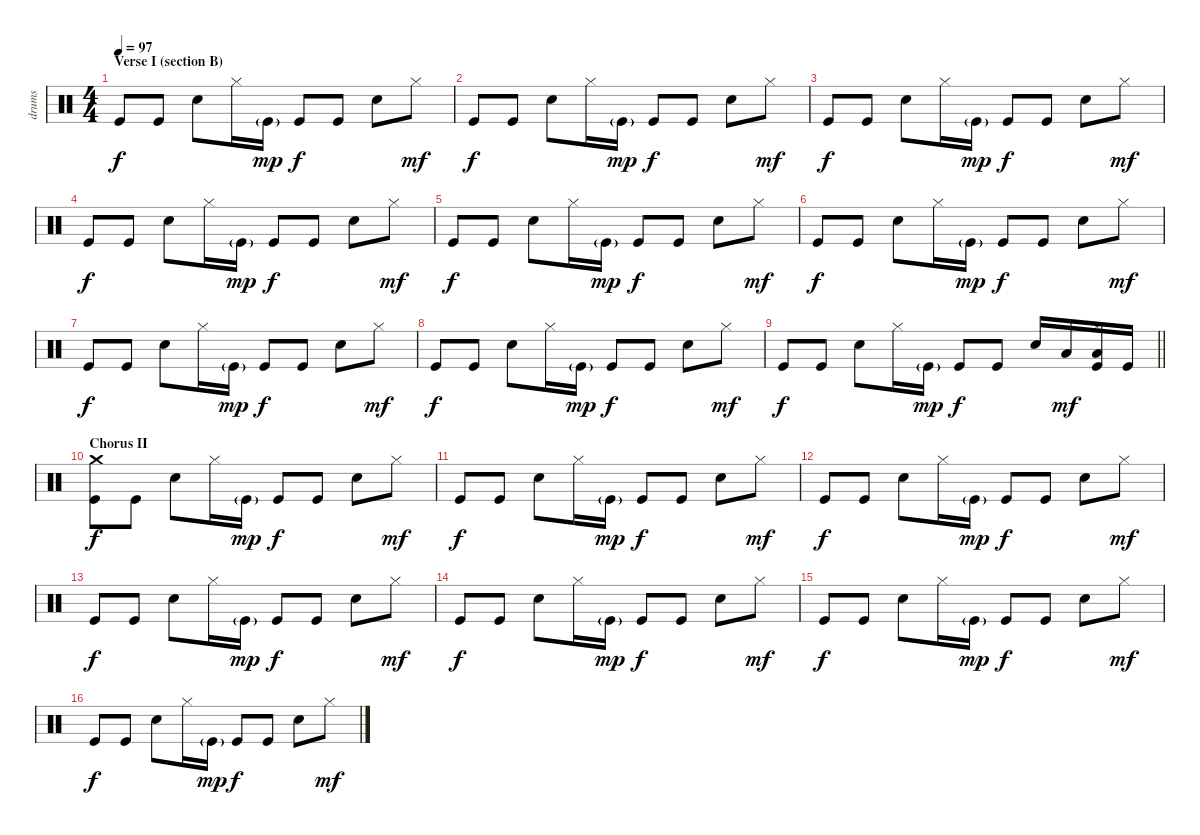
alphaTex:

\track ("drums" "drums") {instrument percussion}
\staff {score}
\articulation defaults
\ts (4 4)
\section ("" "Verse I (section B)")
\tempo 97
\clef neutral
\ks c "Kick (hit)".8{dy f} "Kick (hit)".8 "Electric Snare (hit)".8 "Hi-Hat (closed)".16 "Kick (hit)"{g}.16{dy mp} "Kick (hit)".8{dy f} "Kick (hit)".8 "Electric Snare (hit)".8 "Hi-Hat (closed)".8{dy mf}
|
"Kick (hit)".8{dy f} "Kick (hit)".8 "Electric Snare (hit)".8 "Hi-Hat (closed)".16 "Kick (hit)"{g}.16{dy mp} "Kick (hit)".8{dy f} "Kick (hit)".8 "Electric Snare (hit)".8 "Hi-Hat (closed)".8{dy mf} |
"Kick (hit)".8{dy f} "Kick (hit)".8 "Electric Snare (hit)".8 "Hi-Hat (closed)".16 "Kick (hit)"{g}.16{dy mp} "Kick (hit)".8{dy f} "Kick (hit)".8 "Electric Snare (hit)".8 "Hi-Hat (closed)".8{dy mf} |
"Kick (hit)".8{dy f} "Kick (hit)".8 "Electric Snare (hit)".8 "Hi-Hat (closed)".16 "Kick (hit)"{g}.16{dy mp} "Kick (hit)".8{dy f} "Kick (hit)".8 "Electric Snare (hit)".8 "Hi-Hat (closed)".8{dy mf} |
"Kick (hit)".8{dy f} "Kick (hit)".8 "Electric Snare (hit)".8 "Hi-Hat (closed)".16 "Kick (hit)"{g}.16{dy mp} "Kick (hit)".8{dy f} "Kick (hit)".8 "Electric Snare (hit)".8 "Hi-Hat (closed)".8{dy mf} |
"Kick (hit)".8{dy f} "Kick (hit)".8 "Electric Snare (hit)".8 "Hi-Hat (closed)".16 "Kick (hit)"{g}.16{dy mp} "Kick (hit)".8{dy f} "Kick (hit)".8 "Electric Snare (hit)".8 "Hi-Hat (closed)".8{dy mf} |
"Kick (hit)".8{dy f} "Kick (hit)".8 "Electric Snare (hit)".8 "Hi-Hat (closed)".16 "Kick (hit)"{g}.16{dy mp} "Kick (hit)".8{dy f} "Kick (hit)".8 "Electric Snare (hit)".8 "Hi-Hat (closed)".8{dy mf} |
"Kick (hit)".8{dy f} "Kick (hit)".8 "Electric Snare (hit)".8 "Hi-Hat (closed)".16 "Kick (hit)"{g}.16{dy mp} "Kick (hit)".8{dy f} "Kick (hit)".8 "Electric Snare (hit)".8 "Hi-Hat (closed)".8{dy mf} |
\barLineRight lightlight "Kick (hit)".8{dy f} "Kick (hit)".8 "Electric Snare (hit)".8 "Hi-Hat (closed)".16 "Kick (hit)"{g}.16{dy mp} "Kick (hit)".8{dy f} "Kick (hit)".8 "Electric Snare (hit)".16 "Low Floor Tom (hit)".16{dy mf}
("Hi-Hat (closed)" "Low Floor Tom (hit)" "Kick (hit)").16 "Kick (hit)".16 |
\section ("" "Chorus II")
("Crash medium (hit)" "Kick (hit)").8{dy f} "Kick (hit)".8 "Electric Snare (hit)".8 "Hi-Hat (closed)".16 "Kick (hit)"{g}.16{dy mp} "Kick (hit)".8{dy f} "Kick (hit)".8 "Electric Snare (hit)".8 "Hi-Hat (closed)".8{dy mf} |
"Kick (hit)".8{dy f} "Kick (hit)".8 "Electric Snare (hit)".8 "Hi-Hat (closed)".16 "Kick (hit)"{g}.16{dy mp} "Kick (hit)".8{dy f} "Kick (hit)".8 "Electric Snare (hit)".8 "Hi-Hat (closed)".8{dy mf} |
"Kick (hit)".8{dy f} "Kick (hit)".8 "Electric Snare (hit)".8 "Hi-Hat (closed)".16 "Kick (hit)"{g}.16{dy mp} "Kick (hit)".8{dy f} "Kick (hit)".8 "Electric Snare (hit)".8 "Hi-Hat (closed)".8{dy mf} |
"Kick (hit)".8{dy f} "Kick (hit)".8 "Electric Snare (hit)".8 "Hi-Hat (closed)".16 "Kick (hit)"{g}.16{dy mp} "Kick (hit)".8{dy f} "Kick (hit)".8 "Electric Snare (hit)".8 "Hi-Hat (closed)".8{dy mf} |
"Kick (hit)".8{dy f} "Kick (hit)".8 "Electric Snare (hit)".8 "Hi-Hat (closed)".16 "Kick (hit)"{g}.16{dy mp} "Kick (hit)".8{dy f} "Kick (hit)".8 "Electric Snare (hit)".8 "Hi-Hat (closed)".8{dy mf} |
"Kick (hit)".8{dy f} "Kick (hit)".8 "Electric Snare (hit)".8 "Hi-Hat (closed)".16 "Kick (hit)"{g}.16{dy mp} "Kick (hit)".8{dy f} "Kick (hit)".8 "Electric Snare (hit)".8 "Hi-Hat (closed)".8{dy mf} |
"Kick (hit)".8{dy f} "Kick (hit)".8 "Electric Snare (hit)".8 "Hi-Hat (closed)".16 "Kick (hit)"{g}.16{dy mp} "Kick (hit)".8{dy f} "Kick (hit)".8 "Electric Snare (hit)".8 "Hi-Hat (closed)".8{dy mf}
